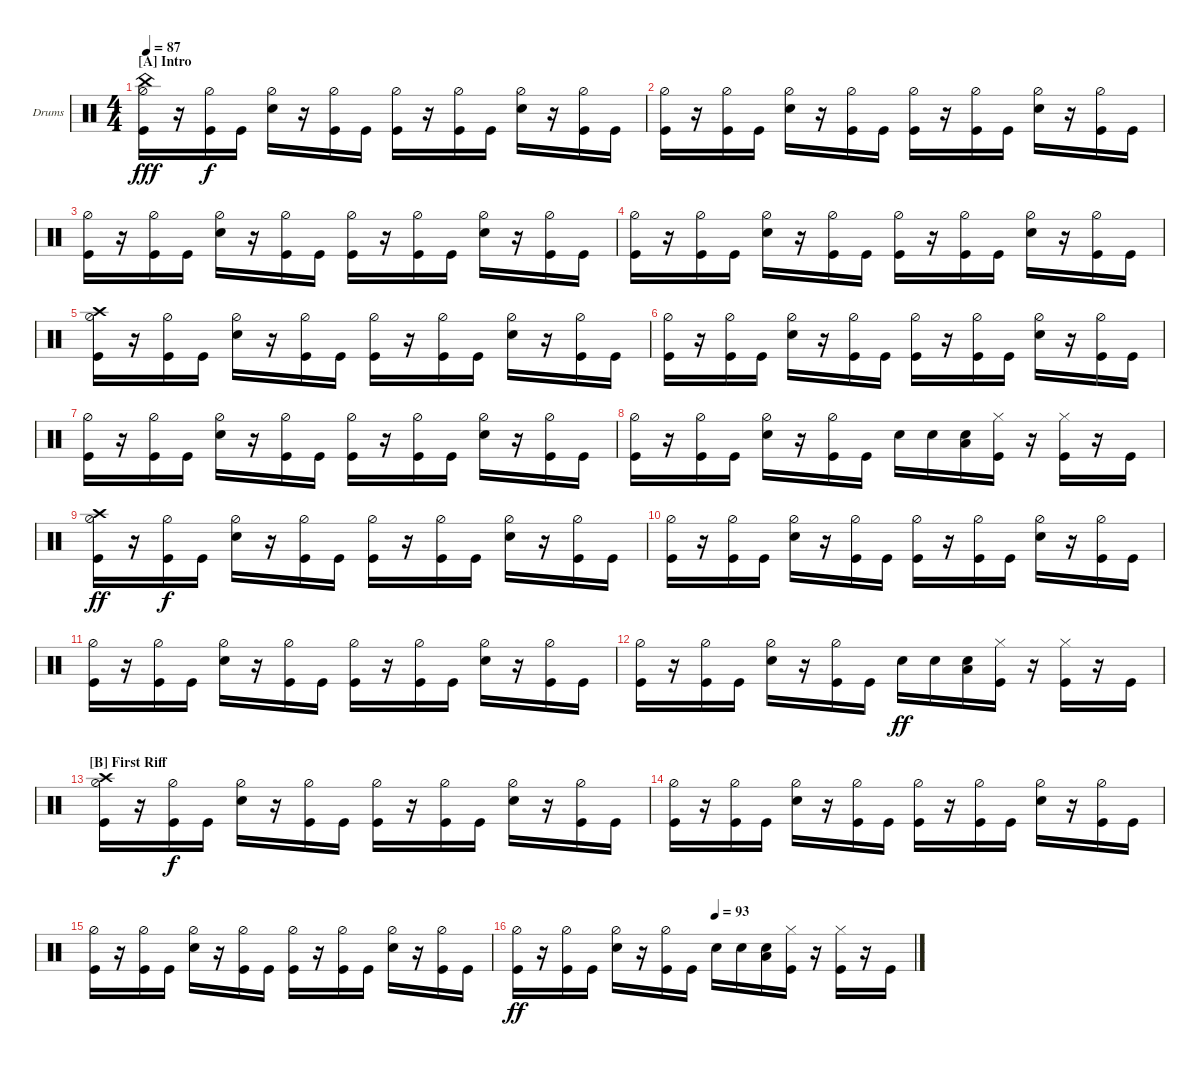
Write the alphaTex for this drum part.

\defaultSystemsLayout 4
\bracketExtendMode groupsimilarinstruments
\firstSystemTrackNameOrientation horizontal
\otherSystemsTrackNameOrientation horizontal
\track ("Drums" "Drums") {instrument percussion}
\staff {score}
\articulation defaults
\ts (4 4)
\section ("A" "Intro")
\tempo 87
\clef neutral
\scale
0.474178
\ks c
("Kick (hit)" "Hi-Hat (half)" "China (hit)").16{dy fff} r.16 ("Kick (hit)" "Hi-Hat (half)").16{dy f} "Kick (hit)".16 ("Snare (hit) 2" "Hi-Hat (half)").16 r.16 ("Kick (hit)" "Hi-Hat (half)").16 "Kick (hit)".16 ("Kick (hit)" "Hi-Hat (half)").16 r.16 ("Kick (hit)" "Hi-Hat (half)").16 "Kick (hit)".16 ("Snare (hit) 2" "Hi-Hat (half)").16 r.16 ("Kick (hit)" "Hi-Hat (half)").16 "Kick (hit)".16 |
\scale
0.262911 ("Kick (hit)" "Hi-Hat (half)").16 r.16 ("Kick (hit)" "Hi-Hat (half)").16 "Kick (hit)".16 ("Snare (hit) 2" "Hi-Hat (half)").16 r.16 ("Kick (hit)" "Hi-Hat (half)").16 "Kick (hit)".16 ("Kick (hit)" "Hi-Hat (half)").16 r.16 ("Kick (hit)" "Hi-Hat (half)").16 "Kick (hit)".16 ("Snare (hit) 2" "Hi-Hat (half)").16 r.16 ("Kick (hit)" "Hi-Hat (half)").16 "Kick (hit)".16 |
\scale
0.262911 ("Kick (hit)" "Hi-Hat (half)").16 r.16 ("Kick (hit)" "Hi-Hat (half)").16 "Kick (hit)".16 ("Snare (hit) 2" "Hi-Hat (half)").16 r.16 ("Kick (hit)" "Hi-Hat (half)").16 "Kick (hit)".16 ("Kick (hit)" "Hi-Hat (half)").16 r.16 ("Kick (hit)" "Hi-Hat (half)").16 "Kick (hit)".16 ("Snare (hit) 2" "Hi-Hat (half)").16 r.16 ("Kick (hit)" "Hi-Hat (half)").16 "Kick (hit)".16 |
\scale
0.333333 ("Kick (hit)" "Hi-Hat (half)").16 r.16 ("Kick (hit)" "Hi-Hat (half)").16 "Kick (hit)".16 ("Snare (hit) 2" "Hi-Hat (half)").16 r.16 ("Kick (hit)" "Hi-Hat (half)").16 "Kick (hit)".16 ("Kick (hit)" "Hi-Hat (half)").16 r.16 ("Kick (hit)" "Hi-Hat (half)").16 "Kick (hit)".16 ("Snare (hit) 2" "Hi-Hat (half)").16 r.16 ("Kick (hit)" "Hi-Hat (half)").16 "Kick (hit)".16 |
\scale
0.333333 ("Kick (hit)" "Hi-Hat (half)" "Crash high (hit)").16 r.16 ("Kick (hit)" "Hi-Hat (half)").16 "Kick (hit)".16 ("Snare (hit) 2" "Hi-Hat (half)").16 r.16 ("Kick (hit)" "Hi-Hat (half)").16 "Kick (hit)".16 ("Kick (hit)" "Hi-Hat (half)").16 r.16 ("Kick (hit)" "Hi-Hat (half)").16 "Kick (hit)".16 ("Snare (hit) 2" "Hi-Hat (half)").16 r.16 ("Kick (hit)" "Hi-Hat (half)").16 "Kick (hit)".16 |
\scale
0.333333 ("Kick (hit)" "Hi-Hat (half)").16 r.16 ("Kick (hit)" "Hi-Hat (half)").16 "Kick (hit)".16 ("Snare (hit) 2" "Hi-Hat (half)").16 r.16 ("Kick (hit)" "Hi-Hat (half)").16 "Kick (hit)".16 ("Kick (hit)" "Hi-Hat (half)").16 r.16 ("Kick (hit)" "Hi-Hat (half)").16 "Kick (hit)".16 ("Snare (hit) 2" "Hi-Hat (half)").16 r.16 ("Kick (hit)" "Hi-Hat (half)").16 "Kick (hit)".16 |
\scale
0.333333 ("Kick (hit)" "Hi-Hat (half)").16 r.16 ("Kick (hit)" "Hi-Hat (half)").16 "Kick (hit)".16 ("Snare (hit) 2" "Hi-Hat (half)").16 r.16 ("Kick (hit)" "Hi-Hat (half)").16 "Kick (hit)".16 ("Kick (hit)" "Hi-Hat (half)").16 r.16 ("Kick (hit)" "Hi-Hat (half)").16 "Kick (hit)".16 ("Snare (hit) 2" "Hi-Hat (half)").16 r.16 ("Kick (hit)" "Hi-Hat (half)").16 "Kick (hit)".16 |
\scale
0.333333 ("Kick (hit)" "Hi-Hat (half)").16 r.16 ("Kick (hit)" "Hi-Hat (half)").16 "Kick (hit)".16 ("Snare (hit) 2" "Hi-Hat (half)").16 r.16 ("Kick (hit)" "Hi-Hat (half)").16 "Kick (hit)".16 "Snare (hit) 2".16 "Snare (hit) 2".16 ("Low Tom (hit)" "Snare (hit) 2").16 ("Kick (hit)" "Hi-Hat (closed)").16 r.16 ("Kick (hit)" "Hi-Hat (closed)").16 r.16 "Kick (hit)".16 |
\scale
0.333333 ("Kick (hit)" "Hi-Hat (half)" "Crash high (hit)").16{dy ff} r.16 ("Kick (hit)" "Hi-Hat (half)").16{dy f} "Kick (hit)".16 ("Snare (hit) 2" "Hi-Hat (half)").16 r.16 ("Kick (hit)" "Hi-Hat (half)").16 "Kick (hit)".16 ("Kick (hit)" "Hi-Hat (half)").16 r.16 ("Kick (hit)" "Hi-Hat (half)").16 "Kick (hit)".16 ("Snare (hit) 2" "Hi-Hat (half)").16 r.16 ("Kick (hit)" "Hi-Hat (half)").16 "Kick (hit)".16 |
\scale
0.333333 ("Kick (hit)" "Hi-Hat (half)").16 r.16 ("Kick (hit)" "Hi-Hat (half)").16 "Kick (hit)".16 ("Snare (hit) 2" "Hi-Hat (half)").16 r.16 ("Kick (hit)" "Hi-Hat (half)").16 "Kick (hit)".16 ("Kick (hit)" "Hi-Hat (half)").16 r.16 ("Kick (hit)" "Hi-Hat (half)").16 "Kick (hit)".16 ("Snare (hit) 2" "Hi-Hat (half)").16 r.16 ("Kick (hit)" "Hi-Hat (half)").16 "Kick (hit)".16 |
\scale
0.333333 ("Kick (hit)" "Hi-Hat (half)").16 r.16 ("Kick (hit)" "Hi-Hat (half)").16 "Kick (hit)".16 ("Snare (hit) 2" "Hi-Hat (half)").16 r.16 ("Kick (hit)" "Hi-Hat (half)").16 "Kick (hit)".16 ("Kick (hit)" "Hi-Hat (half)").16 r.16 ("Kick (hit)" "Hi-Hat (half)").16 "Kick (hit)".16 ("Snare (hit) 2" "Hi-Hat (half)").16 r.16 ("Kick (hit)" "Hi-Hat (half)").16 "Kick (hit)".16 |
\scale
0.333333 ("Kick (hit)" "Hi-Hat (half)").16 r.16 ("Kick (hit)" "Hi-Hat (half)").16 "Kick (hit)".16 ("Snare (hit) 2" "Hi-Hat (half)").16 r.16 ("Kick (hit)" "Hi-Hat (half)").16 "Kick (hit)".16 "Snare (hit) 2".16{dy ff} "Snare (hit) 2".16 ("Low Tom (hit)" "Snare (hit) 2").16 ("Kick (hit)" "Hi-Hat (closed)").16 r.16 ("Kick (hit)" "Hi-Hat (closed)").16 r.16 "Kick (hit)".16 |
\section ("B" "First Riff")
\scale
0.333333 ("Kick (hit)" "Hi-Hat (half)" "Crash high (hit)").16 r.16 ("Kick (hit)" "Hi-Hat (half)").16{dy f} "Kick (hit)".16 ("Snare (hit) 2" "Hi-Hat (half)").16 r.16 ("Kick (hit)" "Hi-Hat (half)").16 "Kick (hit)".16 ("Kick (hit)" "Hi-Hat (half)").16 r.16 ("Kick (hit)" "Hi-Hat (half)").16 "Kick (hit)".16 ("Snare (hit) 2" "Hi-Hat (half)").16 r.16 ("Kick (hit)" "Hi-Hat (half)").16 "Kick (hit)".16 |
\scale
0.333333 ("Kick (hit)" "Hi-Hat (half)").16 r.16 ("Kick (hit)" "Hi-Hat (half)").16 "Kick (hit)".16 ("Snare (hit) 2" "Hi-Hat (half)").16 r.16 ("Kick (hit)" "Hi-Hat (half)").16 "Kick (hit)".16 ("Kick (hit)" "Hi-Hat (half)").16 r.16 ("Kick (hit)" "Hi-Hat (half)").16 "Kick (hit)".16 ("Snare (hit) 2" "Hi-Hat (half)").16 r.16 ("Kick (hit)" "Hi-Hat (half)").16 "Kick (hit)".16 |
\scale
0.333333 ("Kick (hit)" "Hi-Hat (half)").16 r.16 ("Kick (hit)" "Hi-Hat (half)").16 "Kick (hit)".16 ("Snare (hit) 2" "Hi-Hat (half)").16 r.16 ("Kick (hit)" "Hi-Hat (half)").16 "Kick (hit)".16 ("Kick (hit)" "Hi-Hat (half)").16 r.16 ("Kick (hit)" "Hi-Hat (half)").16 "Kick (hit)".16 ("Snare (hit) 2" "Hi-Hat (half)").16 r.16 ("Kick (hit)" "Hi-Hat (half)").16 "Kick (hit)".16 |
\tempo (93 0.5)
\scale
0.333333 ("Kick (hit)" "Hi-Hat (half)").16{dy ff} r.16 ("Kick (hit)" "Hi-Hat (half)").16 "Kick (hit)".16 ("Snare (hit) 2" "Hi-Hat (half)").16 r.16 ("Kick (hit)" "Hi-Hat (half)").16 "Kick (hit)".16 "Snare (hit) 2".16 "Snare (hit) 2".16 ("Low Tom (hit)" "Snare (hit) 2").16 ("Kick (hit)" "Hi-Hat (closed)").16 r.16 ("Kick (hit)" "Hi-Hat (closed)").16 r.16 "Kick (hit)".16
